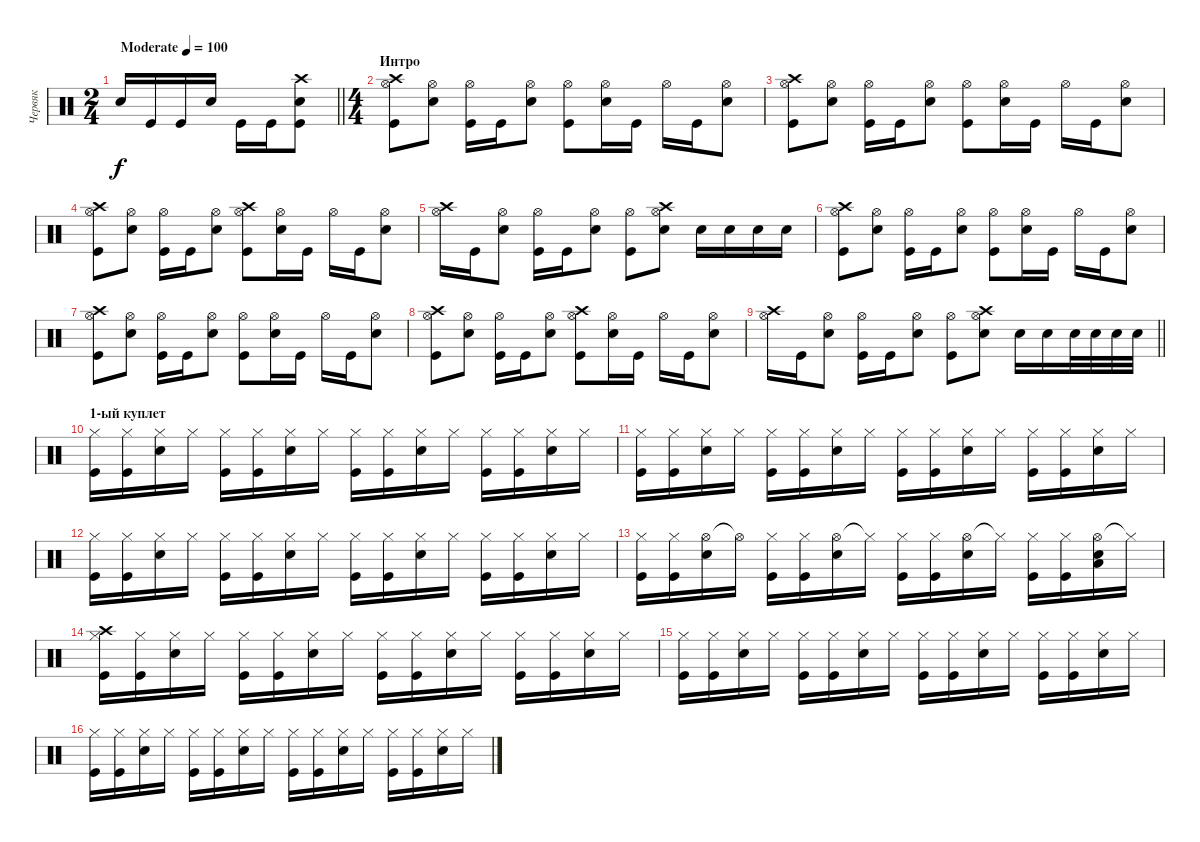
\track ("Червяк" "Червяк") {instrument percussion}
\staff {score}
\articulation defaults
\ts (2 4)
\tempo (100 "Moderate")
\clef neutral
\barLineRight lightlight
\ks c "Electric Snare (hit)".16{dy f} "Kick (hit)".16 "Kick (hit)".16 "Snare (hit) 2".16 "Kick (hit)".16 "Kick (hit)".16
("Crash high (hit)" "Electric Snare (hit)" "Kick (hit)").8 |
\ts (4 4)
\section ("" "Интро")
("Hi-Hat (open)" "Crash high (hit)" "Kick (hit)").8 ("Hi-Hat (open)" "Electric Snare (hit)").8 ("Hi-Hat (open)" "Kick (hit)").16 "Kick (hit)".16 ("Hi-Hat (open)" "Electric Snare (hit)").8 ("Hi-Hat (open)" "Kick (hit)").8 ("Hi-Hat (open)" "Electric Snare (hit)").16 "Kick (hit)".16 "Hi-Hat (open)".16 "Kick (hit)".16 ("Hi-Hat (open)" "Electric Snare (hit)").8 |
("Hi-Hat (open)" "Crash high (hit)" "Kick (hit)").8 ("Hi-Hat (open)" "Electric Snare (hit)").8 ("Hi-Hat (open)" "Kick (hit)").16 "Kick (hit)".16 ("Hi-Hat (open)" "Electric Snare (hit)").8 ("Hi-Hat (open)" "Kick (hit)").8 ("Hi-Hat (open)" "Electric Snare (hit)").16 "Kick (hit)".16 "Hi-Hat (open)".16 "Kick (hit)".16 ("Hi-Hat (open)" "Electric Snare (hit)").8 |
("Hi-Hat (open)" "Crash high (hit)" "Kick (hit)").8 ("Hi-Hat (open)" "Electric Snare (hit)").8 ("Hi-Hat (open)" "Kick (hit)").16 "Kick (hit)".16 ("Hi-Hat (open)" "Electric Snare (hit)").8 ("Hi-Hat (open)" "Crash high (hit)" "Kick (hit)").8 ("Hi-Hat (open)" "Electric Snare (hit)").16 "Kick (hit)".16 "Hi-Hat (open)".16 "Kick (hit)".16 ("Hi-Hat (open)" "Electric Snare (hit)").8 |
("Hi-Hat (open)" "Crash high (hit)").16 "Kick (hit)".16 ("Hi-Hat (open)" "Electric Snare (hit)").8 ("Hi-Hat (open)" "Kick (hit)").16 "Kick (hit)".16 ("Hi-Hat (open)" "Electric Snare (hit)").8 ("Hi-Hat (open)" "Kick (hit)").8 ("Hi-Hat (open)" "Crash high (hit)" "Electric Snare (hit)").8 "Snare (hit) 2".16 "Electric Snare (hit)".16 "Electric Snare (hit)".16 "Electric Snare (hit)".16 |
("Hi-Hat (open)" "Crash high (hit)" "Kick (hit)").8 ("Hi-Hat (open)" "Electric Snare (hit)").8 ("Hi-Hat (open)" "Kick (hit)").16 "Kick (hit)".16 ("Hi-Hat (open)" "Electric Snare (hit)").8 ("Hi-Hat (open)" "Kick (hit)").8 ("Hi-Hat (open)" "Electric Snare (hit)").16 "Kick (hit)".16 "Hi-Hat (open)".16 "Kick (hit)".16 ("Hi-Hat (open)" "Electric Snare (hit)").8 |
("Hi-Hat (open)" "Crash high (hit)" "Kick (hit)").8 ("Hi-Hat (open)" "Electric Snare (hit)").8 ("Hi-Hat (open)" "Kick (hit)").16 "Kick (hit)".16 ("Hi-Hat (open)" "Electric Snare (hit)").8 ("Hi-Hat (open)" "Kick (hit)").8 ("Hi-Hat (open)" "Electric Snare (hit)").16 "Kick (hit)".16 "Hi-Hat (open)".16 "Kick (hit)".16 ("Hi-Hat (open)" "Electric Snare (hit)").8 |
("Hi-Hat (open)" "Crash high (hit)" "Kick (hit)").8 ("Hi-Hat (open)" "Electric Snare (hit)").8 ("Hi-Hat (open)" "Kick (hit)").16 "Kick (hit)".16 ("Hi-Hat (open)" "Electric Snare (hit)").8 ("Hi-Hat (open)" "Crash high (hit)" "Kick (hit)").8 ("Hi-Hat (open)" "Electric Snare (hit)").16 "Kick (hit)".16 "Hi-Hat (open)".16 "Kick (hit)".16 ("Hi-Hat (open)" "Electric Snare (hit)").8 |
\barLineRight lightlight
("Hi-Hat (open)" "Crash high (hit)").16 "Kick (hit)".16 ("Hi-Hat (open)" "Electric Snare (hit)").8 ("Hi-Hat (open)" "Kick (hit)").16 "Kick (hit)".16 ("Hi-Hat (open)" "Electric Snare (hit)").8 ("Hi-Hat (open)" "Kick (hit)").8 ("Hi-Hat (open)" "Crash high (hit)" "Electric Snare (hit)").8 "Electric Snare (hit)".16 "Electric Snare (hit)".16 "Electric Snare (hit)".32 "Electric Snare (hit)".32 "Electric Snare (hit)".32 "Electric Snare (hit)".32 |
\section ("" "1-ый куплет")
("Hi-Hat (closed)" "Kick (hit)").16 ("Hi-Hat (closed)" "Kick (hit)").16 ("Hi-Hat (closed)" "Electric Snare (hit)").16 "Hi-Hat (closed)".16 ("Hi-Hat (closed)" "Kick (hit)").16 ("Hi-Hat (closed)" "Kick (hit)").16 ("Hi-Hat (closed)" "Electric Snare (hit)").16 "Hi-Hat (closed)".16 ("Hi-Hat (closed)" "Kick (hit)").16 ("Hi-Hat (closed)" "Kick (hit)").16 ("Hi-Hat (closed)" "Electric Snare (hit)").16 "Hi-Hat (closed)".16 ("Hi-Hat (closed)" "Kick (hit)").16 ("Hi-Hat (closed)" "Kick (hit)").16 ("Hi-Hat (closed)" "Electric Snare (hit)").16 "Hi-Hat (closed)".16 |
("Hi-Hat (closed)" "Kick (hit)").16 ("Hi-Hat (closed)" "Kick (hit)").16 ("Hi-Hat (closed)" "Electric Snare (hit)").16 "Hi-Hat (closed)".16 ("Hi-Hat (closed)" "Kick (hit)").16 ("Hi-Hat (closed)" "Kick (hit)").16 ("Hi-Hat (closed)" "Electric Snare (hit)").16 "Hi-Hat (closed)".16 ("Hi-Hat (closed)" "Kick (hit)").16 ("Hi-Hat (closed)" "Kick (hit)").16 ("Hi-Hat (closed)" "Electric Snare (hit)").16 "Hi-Hat (closed)".16 ("Hi-Hat (closed)" "Kick (hit)").16 ("Hi-Hat (closed)" "Kick (hit)").16 ("Hi-Hat (closed)" "Electric Snare (hit)").16 "Hi-Hat (closed)".16 |
("Hi-Hat (closed)" "Kick (hit)").16 ("Hi-Hat (closed)" "Kick (hit)").16 ("Hi-Hat (closed)" "Electric Snare (hit)").16 "Hi-Hat (closed)".16 ("Hi-Hat (closed)" "Kick (hit)").16 ("Hi-Hat (closed)" "Kick (hit)").16 ("Hi-Hat (closed)" "Electric Snare (hit)").16 "Hi-Hat (closed)".16 ("Hi-Hat (closed)" "Kick (hit)").16 ("Hi-Hat (closed)" "Kick (hit)").16 ("Hi-Hat (closed)" "Electric Snare (hit)").16 "Hi-Hat (closed)".16 ("Hi-Hat (closed)" "Kick (hit)").16 ("Hi-Hat (closed)" "Kick (hit)").16 ("Hi-Hat (closed)" "Electric Snare (hit)").16 "Hi-Hat (closed)".16 |
("Hi-Hat (closed)" "Kick (hit)").16 ("Hi-Hat (closed)" "Kick (hit)").16 ("Hi-Hat (open)" "Electric Snare (hit)").16 "Hi-Hat (open)"{t}.16 ("Hi-Hat (closed)" "Kick (hit)").16 ("Hi-Hat (closed)" "Kick (hit)").16 ("Hi-Hat (open)" "Electric Snare (hit)").16 "Hi-Hat (closed)"{t}.16 ("Hi-Hat (closed)" "Kick (hit)").16 ("Hi-Hat (closed)" "Kick (hit)").16 ("Hi-Hat (open)" "Electric Snare (hit)").16 "Hi-Hat (closed)"{t}.16 ("Hi-Hat (closed)" "Kick (hit)").16 ("Hi-Hat (closed)" "Kick (hit)").16 ("Hi-Hat (open)" "Low Tom (hit)" "Electric Snare (hit)").16 "Hi-Hat (closed)"{t}.16 |
("Hi-Hat (closed)" "Crash high (hit)" "Kick (hit)").16 ("Hi-Hat (closed)" "Kick (hit)").16 ("Hi-Hat (closed)" "Electric Snare (hit)").16 "Hi-Hat (closed)".16 ("Hi-Hat (closed)" "Kick (hit)").16 ("Hi-Hat (closed)" "Kick (hit)").16 ("Hi-Hat (closed)" "Electric Snare (hit)").16 "Hi-Hat (closed)".16 ("Hi-Hat (closed)" "Kick (hit)").16 ("Hi-Hat (closed)" "Kick (hit)").16 ("Hi-Hat (closed)" "Electric Snare (hit)").16 "Hi-Hat (closed)".16 ("Hi-Hat (closed)" "Kick (hit)").16 ("Hi-Hat (closed)" "Kick (hit)").16 ("Hi-Hat (closed)" "Electric Snare (hit)").16 "Hi-Hat (closed)".16 |
("Hi-Hat (closed)" "Kick (hit)").16 ("Hi-Hat (closed)" "Kick (hit)").16 ("Hi-Hat (closed)" "Electric Snare (hit)").16 "Hi-Hat (closed)".16 ("Hi-Hat (closed)" "Kick (hit)").16 ("Hi-Hat (closed)" "Kick (hit)").16 ("Hi-Hat (closed)" "Electric Snare (hit)").16 "Hi-Hat (closed)".16 ("Hi-Hat (closed)" "Kick (hit)").16 ("Hi-Hat (closed)" "Kick (hit)").16 ("Hi-Hat (closed)" "Electric Snare (hit)").16 "Hi-Hat (closed)".16 ("Hi-Hat (closed)" "Kick (hit)").16 ("Hi-Hat (closed)" "Kick (hit)").16 ("Hi-Hat (closed)" "Electric Snare (hit)").16 "Hi-Hat (closed)".16 |
("Hi-Hat (closed)" "Kick (hit)").16 ("Hi-Hat (closed)" "Kick (hit)").16 ("Hi-Hat (closed)" "Electric Snare (hit)").16 "Hi-Hat (closed)".16 ("Hi-Hat (closed)" "Kick (hit)").16 ("Hi-Hat (closed)" "Kick (hit)").16 ("Hi-Hat (closed)" "Electric Snare (hit)").16 "Hi-Hat (closed)".16 ("Hi-Hat (closed)" "Kick (hit)").16 ("Hi-Hat (closed)" "Kick (hit)").16 ("Hi-Hat (closed)" "Electric Snare (hit)").16 "Hi-Hat (closed)".16 ("Hi-Hat (closed)" "Kick (hit)").16 ("Hi-Hat (closed)" "Kick (hit)").16 ("Hi-Hat (closed)" "Electric Snare (hit)").16 "Hi-Hat (closed)".16
